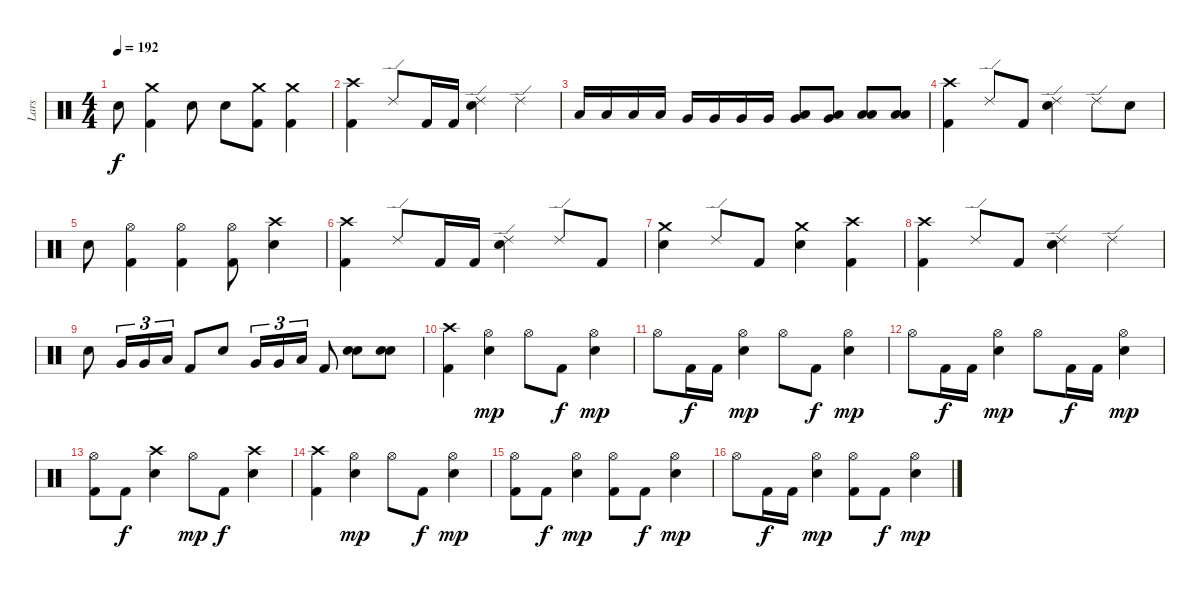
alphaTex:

\track ("Lars" "Lars") {instrument percussion}
\staff {score}
\articulation defaults
\ts (4 4)
\tempo 192
\clef neutral
\ks c "Snare (hit) 2".8{dy f}
("Crash medium (hit)" "Kick (hit) 2").4 "Snare (hit) 2".8 "Snare (hit) 2".8 ("Crash medium (hit)" "Kick (hit) 2").8 ("Crash medium (hit)" "Kick (hit) 2").4 |
("Crash high (hit)" "Kick (hit) 2").4 "Ride (edge) 2".8 "Kick (hit) 2".16 "Kick (hit) 2".16 ("Ride (edge) 2" "Snare (hit) 2").4 "Ride (edge) 2".4 |
"Low Tom (hit)".16 "Low Tom (hit)".16 "Low Tom (hit)".16 "Low Tom (hit)".16 "Very Low Tom (hit)".16 "Very Low Tom (hit)".16 "Very Low Tom (hit)".16 "Very Low Tom (hit)".16 ("Very Low Tom (hit)" "Low Floor Tom (hit)").8 ("Very Low Tom (hit)" "Low Floor Tom (hit)").8 ("Low Floor Tom (hit)" "Low Floor Tom (hit)").8 ("Low Floor Tom (hit)" "Low Floor Tom (hit)").8 |
("Crash high (hit)" "Kick (hit) 2").4 "Ride (edge) 2".8 "Kick (hit) 2".8 ("Ride (edge) 2" "Snare (hit) 2").4 "Ride (edge) 2".8 "Snare (hit) 2".8 |
"Snare (hit) 2".8 ("Hi-Hat (open)" "Kick (hit) 2").4 ("Hi-Hat (open)" "Kick (hit) 2").4 ("Hi-Hat (open)" "Kick (hit) 2").8 ("Crash high (hit)" "Snare (hit) 2").4 |
("Crash high (hit)" "Kick (hit) 2").4 "Ride (edge) 2".8 "Kick (hit) 2".16 "Kick (hit) 2".16 ("Ride (edge) 2" "Snare (hit) 2").4 "Ride (edge) 2".8 "Kick (hit) 2".8 |
("Crash medium (hit)" "Snare (hit) 2").4 "Ride (edge) 2".8 "Kick (hit) 2".8 ("Crash medium (hit)" "Snare (hit) 2").4 ("Crash high (hit)" "Kick (hit) 2").4 |
("Crash high (hit)" "Kick (hit) 2").4 "Ride (edge) 2".8 "Kick (hit) 2".8 ("Ride (edge) 2" "Snare (hit) 2").4 "Ride (edge) 2".4 |
"Snare (hit) 2".8 "Very Low Tom (hit)".16{tu (3 2)} "Very Low Tom (hit)".16{tu (3 2)} "Low Floor Tom (hit)".16{tu (3 2)} "Kick (hit) 2".8 "Snare (hit) 2".8 "Very Low Tom (hit)".16{tu (3 2)} "Very Low Tom (hit)".16{tu (3 2)} "Low Floor Tom (hit)".16{tu (3 2)} "Kick (hit) 2".8 ("Snare (hit) 2" "Snare (hit) 2").8 ("Snare (hit) 2" "Snare (hit) 2").8 |
("Crash high (hit)" "Kick (hit) 2").4 ("Hi-Hat (open)" "Snare (hit) 2").4{dy mp} "Hi-Hat (open)".8 "Kick (hit) 2".8{dy f} ("Hi-Hat (open)" "Snare (hit) 2").4{dy mp} |
"Hi-Hat (open)".8 "Kick (hit) 2".16{dy f} "Kick (hit) 2".16 ("Hi-Hat (open)" "Snare (hit) 2").4{dy mp} "Hi-Hat (open)".8 "Kick (hit) 2".8{dy f} ("Hi-Hat (open)" "Snare (hit) 2").4{dy mp} |
"Hi-Hat (open)".8 "Kick (hit) 2".16{dy f} "Kick (hit) 2".16 ("Hi-Hat (open)" "Snare (hit) 2").4{dy mp} "Hi-Hat (open)".8 "Kick (hit) 2".16{dy f} "Kick (hit) 2".16 ("Hi-Hat (open)" "Snare (hit) 2").4{dy mp} |
("Hi-Hat (open)" "Kick (hit) 2").8 "Kick (hit) 2".8{dy f} ("Crash high (hit)" "Snare (hit) 2").4 "Hi-Hat (open)".8{dy mp} "Kick (hit) 2".8{dy f} ("Crash high (hit)" "Snare (hit) 2").4 |
("Crash high (hit)" "Kick (hit) 2").4 ("Hi-Hat (open)" "Snare (hit) 2").4{dy mp} "Hi-Hat (open)".8 "Kick (hit) 2".8{dy f} ("Hi-Hat (open)" "Snare (hit) 2").4{dy mp} |
("Hi-Hat (open)" "Kick (hit) 2").8 "Kick (hit) 2".8{dy f} ("Hi-Hat (open)" "Snare (hit) 2").4{dy mp} ("Hi-Hat (open)" "Kick (hit) 2").8 "Kick (hit) 2".8{dy f} ("Hi-Hat (open)" "Snare (hit) 2").4{dy mp} |
"Hi-Hat (open)".8 "Kick (hit) 2".16{dy f} "Kick (hit) 2".16 ("Hi-Hat (open)" "Snare (hit) 2").4{dy mp} ("Hi-Hat (open)" "Kick (hit) 2").8 "Kick (hit) 2".8{dy f} ("Hi-Hat (open)" "Snare (hit) 2").4{dy mp}
